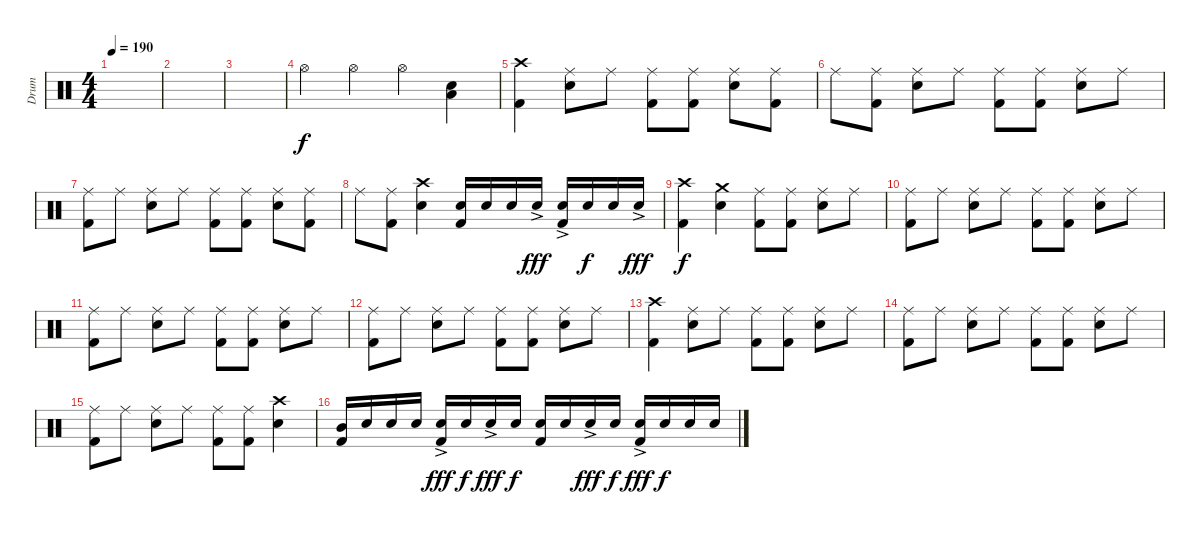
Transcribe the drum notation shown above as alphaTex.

\track ("Drum" "Drum") {instrument percussion}
\staff {score}
\articulation defaults
\ts (4 4)
\tempo 190
\clef neutral
\ks c
|
|
|
"Hi-Hat (open)".4 "Hi-Hat (open)".4 "Hi-Hat (open)".4 ("Electric Snare (hit)" "Low Floor Tom (hit)").4 |
("Crash high (hit)" "Kick (hit) 2").4 ("Ride (middle)" "Electric Snare (hit)").8 "Ride (middle)".8 ("Ride (middle)" "Kick (hit) 2").8 ("Ride (middle)" "Kick (hit) 2").8 ("Ride (middle)" "Electric Snare (hit)").8 ("Ride (middle)" "Kick (hit) 2").8 |
"Ride (middle)".8 ("Ride (middle)" "Kick (hit) 2").8 ("Ride (middle)" "Electric Snare (hit)").8 "Ride (middle)".8 ("Ride (middle)" "Kick (hit) 2").8 ("Ride (middle)" "Kick (hit) 2").8 ("Ride (middle)" "Electric Snare (hit)").8 "Ride (middle)".8 |
("Ride (middle)" "Kick (hit) 2").8 "Ride (middle)".8 ("Ride (middle)" "Electric Snare (hit)").8 "Ride (middle)".8 ("Ride (middle)" "Kick (hit) 2").8 ("Ride (middle)" "Kick (hit) 2").8 ("Ride (middle)" "Electric Snare (hit)").8 ("Ride (middle)" "Kick (hit) 2").8 |
"Ride (middle)".8 ("Ride (middle)" "Kick (hit) 2").8 ("Crash high (hit)" "Electric Snare (hit)").4 ("Electric Snare (hit)" "Kick (hit) 2").16 "Electric Snare (hit)".16 "Electric Snare (hit)".16 "Electric Snare (hit)"{ac}.16{dy fff} ("Electric Snare (hit)"{ac} "Kick (hit) 2").16 "Electric Snare (hit)".16{dy f} "Electric Snare (hit)".16 "Electric Snare (hit)"{ac}.16{dy fff} |
("Crash high (hit)" "Kick (hit) 2").4{dy f} ("Crash medium (hit)" "Electric Snare (hit)").4 ("Ride (middle)" "Kick (hit) 2").8 ("Ride (middle)" "Kick (hit) 2").8 ("Ride (middle)" "Electric Snare (hit)").8 "Ride (middle)".8 |
("Ride (middle)" "Kick (hit) 2").8 "Ride (middle)".8 ("Ride (middle)" "Electric Snare (hit)").8 "Ride (middle)".8 ("Ride (middle)" "Kick (hit) 2").8 ("Ride (middle)" "Kick (hit) 2").8 ("Ride (middle)" "Electric Snare (hit)").8 "Ride (middle)".8 |
("Ride (middle)" "Kick (hit) 2").8 "Ride (middle)".8 ("Ride (middle)" "Electric Snare (hit)").8 "Ride (middle)".8 ("Ride (middle)" "Kick (hit) 2").8 ("Ride (middle)" "Kick (hit) 2").8 ("Ride (middle)" "Electric Snare (hit)").8 "Ride (middle)".8 |
("Ride (middle)" "Kick (hit) 2").8 "Ride (middle)".8 ("Ride (middle)" "Electric Snare (hit)").8 "Ride (middle)".8 ("Ride (middle)" "Kick (hit) 2").8 ("Ride (middle)" "Kick (hit) 2").8 ("Ride (middle)" "Electric Snare (hit)").8 "Ride (middle)".8 |
("Crash high (hit)" "Kick (hit) 2").4 ("Ride (middle)" "Electric Snare (hit)").8 "Ride (middle)".8 ("Ride (middle)" "Kick (hit) 2").8 ("Ride (middle)" "Kick (hit) 2").8 ("Ride (middle)" "Electric Snare (hit)").8 "Ride (middle)".8 |
("Ride (middle)" "Kick (hit) 2").8 "Ride (middle)".8 ("Ride (middle)" "Electric Snare (hit)").8 "Ride (middle)".8 ("Ride (middle)" "Kick (hit) 2").8 ("Ride (middle)" "Kick (hit) 2").8 ("Ride (middle)" "Electric Snare (hit)").8 "Ride (middle)".8 |
("Ride (middle)" "Kick (hit) 2").8 "Ride (middle)".8 ("Ride (middle)" "Electric Snare (hit)").8 "Ride (middle)".8 ("Ride (middle)" "Kick (hit) 2").8 ("Ride (middle)" "Kick (hit) 2").8 ("Crash high (hit)" "Electric Snare (hit)").4 |
("Mid Tom (hit)" "Kick (hit) 2").16 "Electric Snare (hit)".16 "Electric Snare (hit)".16 "Electric Snare (hit)".16 ("Electric Snare (hit)"{ac} "Kick (hit) 2").16{dy fff} "Electric Snare (hit)".16{dy f} "Electric Snare (hit)"{ac}.16{dy fff} "Electric Snare (hit)".16{dy f} ("Electric Snare (hit)" "Kick (hit) 2").16 "Electric Snare (hit)".16 "Electric Snare (hit)"{ac}.16{dy fff} "Electric Snare (hit)".16{dy f} ("Electric Snare (hit)"{ac} "Kick (hit) 2").16{dy fff} "Electric Snare (hit)".16{dy f} "Electric Snare (hit)".16 "Electric Snare (hit)".16
